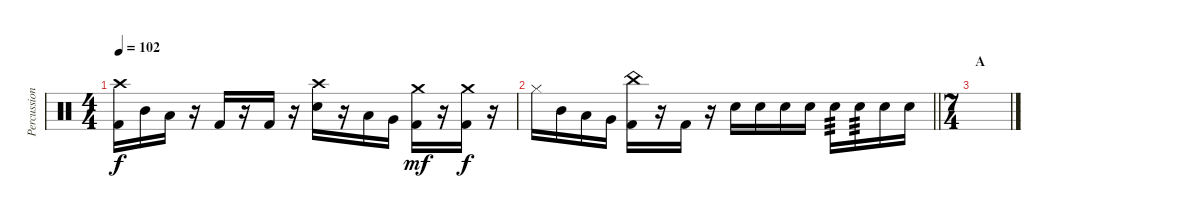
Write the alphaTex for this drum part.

\track ("Percussion" "Percussion") {instrument percussion}
\staff {score}
\articulation defaults
\ts (4 4)
\tempo 102
\clef neutral
\ks c
("Crash high (hit)" "Kick (hit) 2").16{dy f} "Mid Tom (hit)".16 "Low Tom (hit)".16 r.16 "Kick (hit) 2".16 r.16 "Kick (hit) 2".16 r.16 ("Crash high (hit)" "Snare (hit) 2").16 r.16 "Low Tom (hit)".16 "Very Low Tom (hit)".16 ("Crash medium (hit)" "Kick (hit) 2").16{dy mf} r.16 ("Crash medium (hit)" "Kick (hit) 2").16{dy f} r.16 |
\barLineRight lightlight "Hi-Hat (closed)".16 "Mid Tom (hit)".16 "Low Tom (hit)".16 "Very Low Tom (hit)".16
("China (hit)" "Kick (hit) 2").16 r.16 "Kick (hit) 2".16 r.16 "Snare (hit) 2".16 "Snare (hit) 2".16 "Snare (hit) 2".16 "Snare (hit) 2".16 "Snare (hit) 2".16{tp 3} "Snare (hit) 2".16{tp 3} "Snare (hit) 2".16 "Snare (hit) 2".16 |
\ts (7 4)
\section ("" "A")
